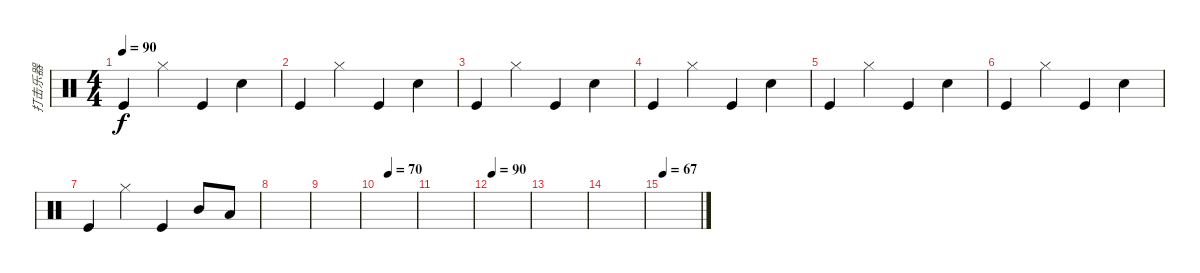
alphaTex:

\track ("打击乐器" "打击乐器") {instrument percussion}
\staff {score}
\articulation defaults
\ts (4 4)
\tempo 90
\clef neutral
\ks c "Kick (hit)".4{dy f} "Hi-Hat (closed)".4 "Kick (hit)".4 "Electric Snare (hit)".4
|
"Kick (hit)".4 "Hi-Hat (closed)".4 "Kick (hit)".4 "Electric Snare (hit)".4 |
"Kick (hit)".4 "Hi-Hat (closed)".4 "Kick (hit)".4 "Electric Snare (hit)".4 |
"Kick (hit)".4 "Hi-Hat (closed)".4 "Kick (hit)".4 "Electric Snare (hit)".4 |
"Kick (hit)".4 "Hi-Hat (closed)".4 "Kick (hit)".4 "Electric Snare (hit)".4 |
"Kick (hit)".4 "Hi-Hat (closed)".4 "Kick (hit)".4 "Electric Snare (hit)".4 |
"Kick (hit)".4 "Hi-Hat (closed)".4 "Kick (hit)".4 "Mid Tom (hit)".8 "Low Tom (hit)".8 |
|
|
\tempo (70 0.25)
|
|
\tempo 90
|
|
|
\tempo 67
